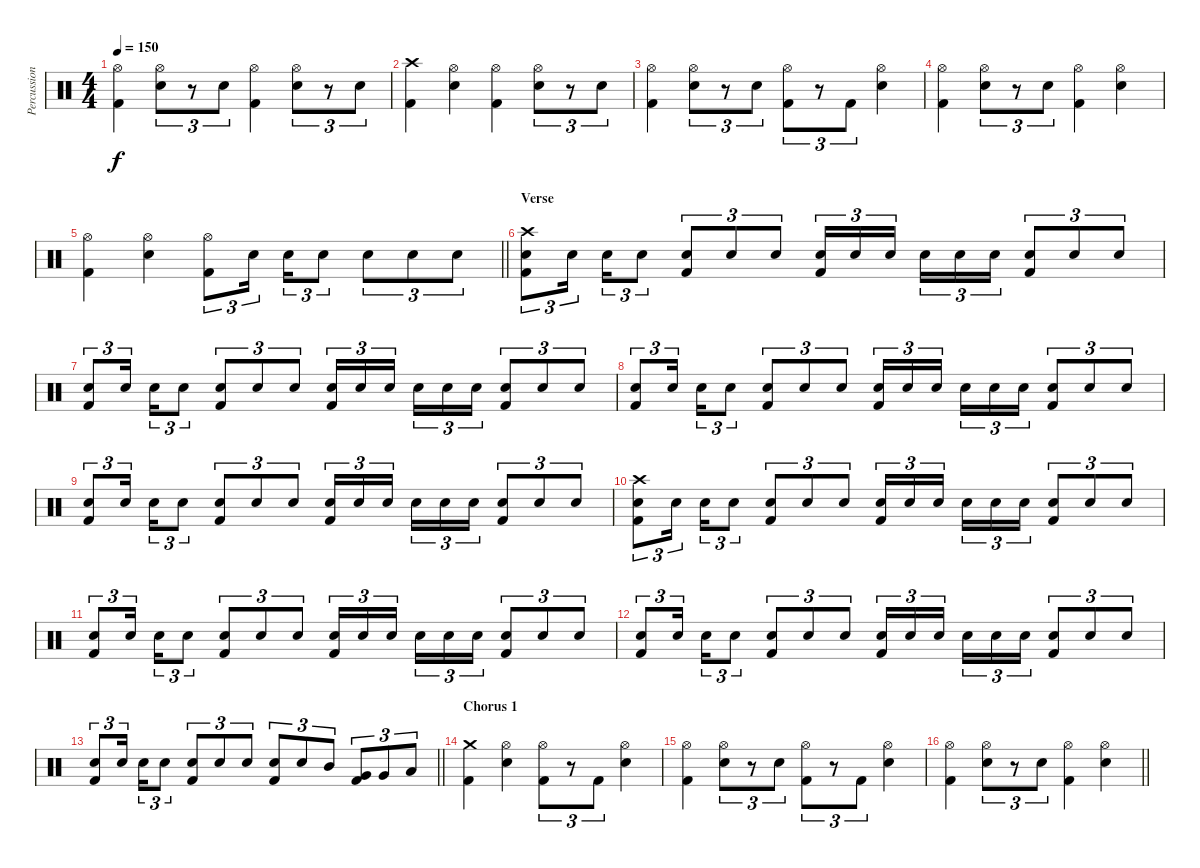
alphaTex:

\track ("Percussion" "Percussion") {instrument percussion}
\staff {score}
\articulation defaults
\ts (4 4)
\tempo 150
\clef neutral
\ks c
("Hi-Hat (open)" "Kick (hit) 2").4{dy f} ("Hi-Hat (open)" "Electric Snare (hit)").8{tu (3 2)} r.8{tu (3 2)} "Electric Snare (hit)".8{tu (3 2)} ("Hi-Hat (open)" "Kick (hit) 2").4 ("Hi-Hat (open)" "Electric Snare (hit)").8{tu (3 2)} r.8{tu (3 2)} "Electric Snare (hit)".8{tu (3 2)} |
("Crash high (hit)" "Kick (hit) 2").4 ("Hi-Hat (open)" "Electric Snare (hit)").4 ("Hi-Hat (open)" "Kick (hit) 2").4 ("Hi-Hat (open)" "Electric Snare (hit)").8{tu (3 2)} r.8{tu (3 2)} "Electric Snare (hit)".8{tu (3 2)} |
("Hi-Hat (open)" "Kick (hit) 2").4 ("Hi-Hat (open)" "Electric Snare (hit)").8{tu (3 2)} r.8{tu (3 2)} "Electric Snare (hit)".8{tu (3 2)} ("Hi-Hat (open)" "Kick (hit) 2").8{tu (3 2)} r.8{tu (3 2)} "Kick (hit) 2".8{tu (3 2)} ("Hi-Hat (open)" "Electric Snare (hit)").4 |
("Hi-Hat (open)" "Kick (hit) 2").4 ("Hi-Hat (open)" "Electric Snare (hit)").8{tu (3 2)} r.8{tu (3 2)} "Electric Snare (hit)".8{tu (3 2)} ("Hi-Hat (open)" "Kick (hit) 2").4 ("Hi-Hat (open)" "Electric Snare (hit)").4 |
\barLineRight lightlight
("Hi-Hat (open)" "Kick (hit) 2").4 ("Hi-Hat (open)" "Electric Snare (hit)").4 ("Hi-Hat (open)" "Kick (hit) 2").8{tu (3 2)} "Electric Snare (hit)".16{tu (3 2) beam splitsecondary} "Electric Snare (hit)".16{tu (3 2)} "Electric Snare (hit)".8{tu (3 2)} "Electric Snare (hit)".8{tu (3 2)} "Electric Snare (hit)".8{tu (3 2)} "Electric Snare (hit)".8{tu (3 2)} |
\section ("" "Verse")
("Crash high (hit)" "Electric Snare (hit)" "Kick (hit) 2").8{tu (3 2)} "Electric Snare (hit)".16{tu (3 2) beam splitsecondary} "Electric Snare (hit)".16{tu (3 2)} "Electric Snare (hit)".8{tu (3 2)} ("Electric Snare (hit)" "Kick (hit) 2").8{tu (3 2)} "Electric Snare (hit)".8{tu (3 2)} "Electric Snare (hit)".8{tu (3 2)} ("Electric Snare (hit)" "Kick (hit) 2").16{tu (3 2)} "Electric Snare (hit)".16{tu (3 2)} "Electric Snare (hit)".16{tu (3 2) beam splitsecondary} "Electric Snare (hit)".16{tu (3 2)} "Electric Snare (hit)".16{tu (3 2)} "Electric Snare (hit)".16{tu (3 2)} ("Electric Snare (hit)" "Kick (hit) 2").8{tu (3 2)} "Electric Snare (hit)".8{tu (3 2)} "Electric Snare (hit)".8{tu (3 2)} |
("Electric Snare (hit)" "Kick (hit) 2").8{tu (3 2)} "Electric Snare (hit)".16{tu (3 2) beam splitsecondary} "Electric Snare (hit)".16{tu (3 2)} "Electric Snare (hit)".8{tu (3 2)} ("Electric Snare (hit)" "Kick (hit) 2").8{tu (3 2)} "Electric Snare (hit)".8{tu (3 2)} "Electric Snare (hit)".8{tu (3 2)} ("Electric Snare (hit)" "Kick (hit) 2").16{tu (3 2)} "Electric Snare (hit)".16{tu (3 2)} "Electric Snare (hit)".16{tu (3 2) beam splitsecondary} "Electric Snare (hit)".16{tu (3 2)} "Electric Snare (hit)".16{tu (3 2)} "Electric Snare (hit)".16{tu (3 2)} ("Electric Snare (hit)" "Kick (hit) 2").8{tu (3 2)} "Electric Snare (hit)".8{tu (3 2)} "Electric Snare (hit)".8{tu (3 2)} |
("Electric Snare (hit)" "Kick (hit) 2").8{tu (3 2)} "Electric Snare (hit)".16{tu (3 2) beam splitsecondary} "Electric Snare (hit)".16{tu (3 2)} "Electric Snare (hit)".8{tu (3 2)} ("Electric Snare (hit)" "Kick (hit) 2").8{tu (3 2)} "Electric Snare (hit)".8{tu (3 2)} "Electric Snare (hit)".8{tu (3 2)} ("Electric Snare (hit)" "Kick (hit) 2").16{tu (3 2)} "Electric Snare (hit)".16{tu (3 2)} "Electric Snare (hit)".16{tu (3 2) beam splitsecondary} "Electric Snare (hit)".16{tu (3 2)} "Electric Snare (hit)".16{tu (3 2)} "Electric Snare (hit)".16{tu (3 2)} ("Electric Snare (hit)" "Kick (hit) 2").8{tu (3 2)} "Electric Snare (hit)".8{tu (3 2)} "Electric Snare (hit)".8{tu (3 2)} |
("Electric Snare (hit)" "Kick (hit) 2").8{tu (3 2)} "Electric Snare (hit)".16{tu (3 2) beam splitsecondary} "Electric Snare (hit)".16{tu (3 2)} "Electric Snare (hit)".8{tu (3 2)} ("Electric Snare (hit)" "Kick (hit) 2").8{tu (3 2)} "Electric Snare (hit)".8{tu (3 2)} "Electric Snare (hit)".8{tu (3 2)} ("Electric Snare (hit)" "Kick (hit) 2").16{tu (3 2)} "Electric Snare (hit)".16{tu (3 2)} "Electric Snare (hit)".16{tu (3 2) beam splitsecondary} "Electric Snare (hit)".16{tu (3 2)} "Electric Snare (hit)".16{tu (3 2)} "Electric Snare (hit)".16{tu (3 2)} ("Electric Snare (hit)" "Kick (hit) 2").8{tu (3 2)} "Electric Snare (hit)".8{tu (3 2)} "Electric Snare (hit)".8{tu (3 2)} |
("Crash high (hit)" "Electric Snare (hit)" "Kick (hit) 2").8{tu (3 2)} "Electric Snare (hit)".16{tu (3 2) beam splitsecondary} "Electric Snare (hit)".16{tu (3 2)} "Electric Snare (hit)".8{tu (3 2)} ("Electric Snare (hit)" "Kick (hit) 2").8{tu (3 2)} "Electric Snare (hit)".8{tu (3 2)} "Electric Snare (hit)".8{tu (3 2)} ("Electric Snare (hit)" "Kick (hit) 2").16{tu (3 2)} "Electric Snare (hit)".16{tu (3 2)} "Electric Snare (hit)".16{tu (3 2) beam splitsecondary} "Electric Snare (hit)".16{tu (3 2)} "Electric Snare (hit)".16{tu (3 2)} "Electric Snare (hit)".16{tu (3 2)} ("Electric Snare (hit)" "Kick (hit) 2").8{tu (3 2)} "Electric Snare (hit)".8{tu (3 2)} "Electric Snare (hit)".8{tu (3 2)} |
("Electric Snare (hit)" "Kick (hit) 2").8{tu (3 2)} "Electric Snare (hit)".16{tu (3 2) beam splitsecondary} "Electric Snare (hit)".16{tu (3 2)} "Electric Snare (hit)".8{tu (3 2)} ("Electric Snare (hit)" "Kick (hit) 2").8{tu (3 2)} "Electric Snare (hit)".8{tu (3 2)} "Electric Snare (hit)".8{tu (3 2)} ("Electric Snare (hit)" "Kick (hit) 2").16{tu (3 2)} "Electric Snare (hit)".16{tu (3 2)} "Electric Snare (hit)".16{tu (3 2) beam splitsecondary} "Electric Snare (hit)".16{tu (3 2)} "Electric Snare (hit)".16{tu (3 2)} "Electric Snare (hit)".16{tu (3 2)} ("Electric Snare (hit)" "Kick (hit) 2").8{tu (3 2)} "Electric Snare (hit)".8{tu (3 2)} "Electric Snare (hit)".8{tu (3 2)} |
("Electric Snare (hit)" "Kick (hit) 2").8{tu (3 2)} "Electric Snare (hit)".16{tu (3 2) beam splitsecondary} "Electric Snare (hit)".16{tu (3 2)} "Electric Snare (hit)".8{tu (3 2)} ("Electric Snare (hit)" "Kick (hit) 2").8{tu (3 2)} "Electric Snare (hit)".8{tu (3 2)} "Electric Snare (hit)".8{tu (3 2)} ("Electric Snare (hit)" "Kick (hit) 2").16{tu (3 2)} "Electric Snare (hit)".16{tu (3 2)} "Electric Snare (hit)".16{tu (3 2) beam splitsecondary} "Electric Snare (hit)".16{tu (3 2)} "Electric Snare (hit)".16{tu (3 2)} "Electric Snare (hit)".16{tu (3 2)} ("Electric Snare (hit)" "Kick (hit) 2").8{tu (3 2)} "Electric Snare (hit)".8{tu (3 2)} "Electric Snare (hit)".8{tu (3 2)} |
\barLineRight lightlight
("Electric Snare (hit)" "Kick (hit) 2").8{tu (3 2)} "Electric Snare (hit)".16{tu (3 2) beam splitsecondary} "Electric Snare (hit)".16{tu (3 2)} "Electric Snare (hit)".8{tu (3 2)} ("Electric Snare (hit)" "Kick (hit) 2").8{tu (3 2)} "Electric Snare (hit)".8{tu (3 2)} "Electric Snare (hit)".8{tu (3 2)} ("Electric Snare (hit)" "Kick (hit) 2").8{tu (3 2)} "Electric Snare (hit)".8{tu (3 2)} "Mid Tom (hit)".8{tu (3 2)} ("Very Low Tom (hit)" "Kick (hit) 2").8{tu (3 2)} "Very Low Tom (hit)".8{tu (3 2)} "Low Floor Tom (hit)".8{tu (3 2)} |
\section ("" "Chorus 1")
("Crash medium (hit)" "Kick (hit) 2").4 ("Hi-Hat (open)" "Electric Snare (hit)").4 ("Hi-Hat (open)" "Kick (hit) 2").8{tu (3 2)} r.8{tu (3 2)} "Kick (hit) 2".8{tu (3 2)} ("Hi-Hat (open)" "Electric Snare (hit)").4 |
("Hi-Hat (open)" "Kick (hit) 2").4 ("Hi-Hat (open)" "Electric Snare (hit)").8{tu (3 2)} r.8{tu (3 2)} "Electric Snare (hit)".8{tu (3 2)} ("Hi-Hat (open)" "Kick (hit) 2").8{tu (3 2)} r.8{tu (3 2)} "Kick (hit) 2".8{tu (3 2)} ("Hi-Hat (open)" "Electric Snare (hit)").4 |
\barLineRight lightlight
("Hi-Hat (open)" "Kick (hit) 2").4 ("Hi-Hat (open)" "Electric Snare (hit)").8{tu (3 2)} r.8{tu (3 2)} "Electric Snare (hit)".8{tu (3 2)} ("Hi-Hat (open)" "Kick (hit) 2").4 ("Hi-Hat (open)" "Electric Snare (hit)").4
